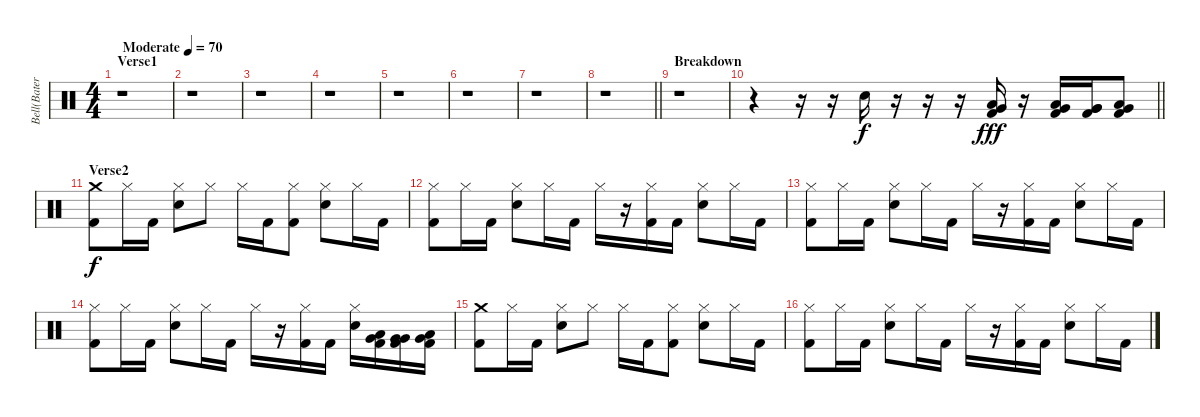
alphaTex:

\track ("Bell(Bateria)" "Bell(Bater") {instrument percussion}
\staff {score}
\articulation defaults
\ts (4 4)
\section ("" "Verse1")
\tempo (70 "Moderate")
\clef neutral
\ks c
r.1{dy f} |
r.1 |
r.1 |
r.1 |
r.1 |
r.1 |
r.1 |
\barLineRight lightlight
r.1 |
\section ("" "Breakdown")
r.1 |
\barLineRight lightlight
r.4 r.16 r.16 "Electric Snare (hit)".16 r.16 r.16 r.16 ("Very Low Tom (hit)" "Low Floor Tom (hit)" "Kick (hit) 2").16{dy fff} r.16 ("Low Tom (hit)" "Very Low Tom (hit)" "Kick (hit) 2").16 ("Very Low Tom (hit)" "Very Low Tom (hit)" "Kick (hit) 2").16 ("Very Low Tom (hit)" "Low Floor Tom (hit)" "Kick (hit) 2").8 |
\section ("" "Verse2")
("Crash medium (hit)" "Kick (hit) 2").8{dy f} "Hi-Hat (closed)".16 "Kick (hit) 2".16 ("Hi-Hat (closed)" "Electric Snare (hit)").8 "Hi-Hat (closed)".8 "Hi-Hat (closed)".16 "Kick (hit) 2".16 ("Hi-Hat (closed)" "Kick (hit) 2").8 ("Hi-Hat (closed)" "Electric Snare (hit)").8 "Hi-Hat (closed)".16 "Kick (hit) 2".16 |
("Hi-Hat (closed)" "Kick (hit) 2").8 "Hi-Hat (closed)".16 "Kick (hit) 2".16 ("Hi-Hat (closed)" "Electric Snare (hit)").8 "Hi-Hat (closed)".16 "Kick (hit) 2".16 "Hi-Hat (closed)".16 r.16 ("Hi-Hat (closed)" "Kick (hit) 2").16 "Kick (hit) 2".16 ("Hi-Hat (closed)" "Electric Snare (hit)").8 "Hi-Hat (closed)".16 "Kick (hit) 2".16 |
("Hi-Hat (closed)" "Kick (hit) 2").8 "Hi-Hat (closed)".16 "Kick (hit) 2".16 ("Hi-Hat (closed)" "Electric Snare (hit)").8 "Hi-Hat (closed)".16 "Kick (hit) 2".16 "Hi-Hat (closed)".16 r.16 ("Hi-Hat (closed)" "Kick (hit) 2").16 "Kick (hit) 2".16 ("Hi-Hat (closed)" "Electric Snare (hit)").8 "Hi-Hat (closed)".16 "Kick (hit) 2".16 |
("Hi-Hat (closed)" "Kick (hit) 2").8 "Hi-Hat (closed)".16 "Kick (hit) 2".16 ("Hi-Hat (closed)" "Electric Snare (hit)").8 "Hi-Hat (closed)".16 "Kick (hit) 2".16 "Hi-Hat (closed)".16 r.16 ("Hi-Hat (closed)" "Kick (hit) 2").16 "Kick (hit) 2".16 ("Hi-Hat (closed)" "Electric Snare (hit)").16 ("Low Tom (hit)" "Very Low Tom (hit)" "Kick (hit) 2").16 ("Very Low Tom (hit)" "Very Low Tom (hit)" "Kick (hit) 2").16 ("Very Low Tom (hit)" "Low Floor Tom (hit)" "Kick (hit) 2").16 |
("Crash medium (hit)" "Kick (hit) 2").8 "Hi-Hat (closed)".16 "Kick (hit) 2".16 ("Hi-Hat (closed)" "Electric Snare (hit)").8 "Hi-Hat (closed)".8 "Hi-Hat (closed)".16 "Kick (hit) 2".16 ("Hi-Hat (closed)" "Kick (hit) 2").8 ("Hi-Hat (closed)" "Electric Snare (hit)").8 "Hi-Hat (closed)".16 "Kick (hit) 2".16 |
("Hi-Hat (closed)" "Kick (hit) 2").8 "Hi-Hat (closed)".16 "Kick (hit) 2".16 ("Hi-Hat (closed)" "Electric Snare (hit)").8 "Hi-Hat (closed)".16 "Kick (hit) 2".16 "Hi-Hat (closed)".16 r.16 ("Hi-Hat (closed)" "Kick (hit) 2").16 "Kick (hit) 2".16 ("Hi-Hat (closed)" "Electric Snare (hit)").8 "Hi-Hat (closed)".16 "Kick (hit) 2".16
